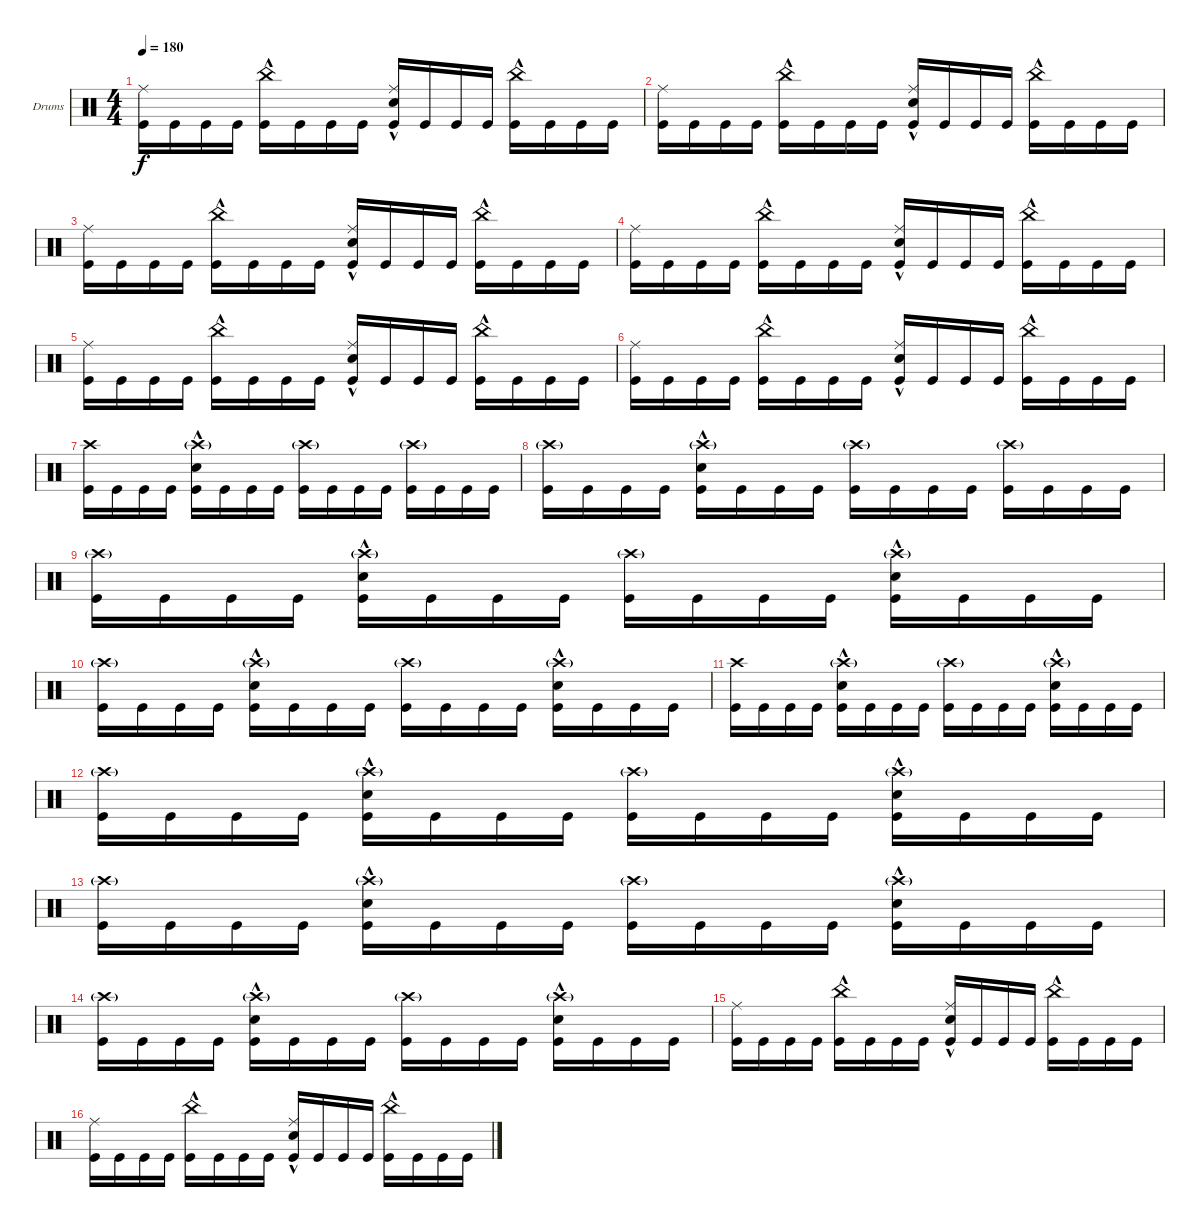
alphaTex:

\bracketExtendMode groupsimilarinstruments
\firstSystemTrackNameOrientation horizontal
\otherSystemsTrackNameOrientation horizontal
\track ("Drumkit" "Drums") {instrument percussion}
\staff {score}
\articulation defaults
\ts (4 4)
\tempo 180
\clef neutral
\scale
0.333333
\ks c
("Kick (hit)" "Ride (middle)").16{dy f} "Kick (hit)".16 "Kick (hit)".16 "Kick (hit)".16 ("Kick (hit)" "China (hit)"{hac}).16 "Kick (hit)".16 "Kick (hit)".16 "Kick (hit)".16 ("Kick (hit)" "Snare (hit) 2"{hac} "Ride (middle)").16 "Kick (hit)".16 "Kick (hit)".16 "Kick (hit)".16 ("Kick (hit)" "China (hit)"{hac}).16 "Kick (hit)".16 "Kick (hit)".16 "Kick (hit)".16 |
\scale
0.333333 ("Kick (hit)" "Ride (middle)").16 "Kick (hit)".16 "Kick (hit)".16 "Kick (hit)".16 ("Kick (hit)" "China (hit)"{hac}).16 "Kick (hit)".16 "Kick (hit)".16 "Kick (hit)".16 ("Kick (hit)" "Snare (hit) 2"{hac} "Ride (middle)").16 "Kick (hit)".16 "Kick (hit)".16 "Kick (hit)".16 ("Kick (hit)" "China (hit)"{hac}).16 "Kick (hit)".16 "Kick (hit)".16 "Kick (hit)".16 |
\scale
0.333333 ("Kick (hit)" "Ride (middle)").16 "Kick (hit)".16 "Kick (hit)".16 "Kick (hit)".16 ("Kick (hit)" "China (hit)"{hac}).16 "Kick (hit)".16 "Kick (hit)".16 "Kick (hit)".16 ("Kick (hit)" "Snare (hit) 2"{hac} "Ride (middle)").16 "Kick (hit)".16 "Kick (hit)".16 "Kick (hit)".16 ("Kick (hit)" "China (hit)"{hac}).16 "Kick (hit)".16 "Kick (hit)".16 "Kick (hit)".16 |
\scale
0.333333 ("Kick (hit)" "Ride (middle)").16 "Kick (hit)".16 "Kick (hit)".16 "Kick (hit)".16 ("Kick (hit)" "China (hit)"{hac}).16 "Kick (hit)".16 "Kick (hit)".16 "Kick (hit)".16 ("Kick (hit)" "Snare (hit) 2"{hac} "Ride (middle)").16 "Kick (hit)".16 "Kick (hit)".16 "Kick (hit)".16 ("Kick (hit)" "China (hit)"{hac}).16 "Kick (hit)".16 "Kick (hit)".16 "Kick (hit)".16 |
\scale
0.333333 ("Kick (hit)" "Ride (middle)").16 "Kick (hit)".16 "Kick (hit)".16 "Kick (hit)".16 ("Kick (hit)" "China (hit)"{hac}).16 "Kick (hit)".16 "Kick (hit)".16 "Kick (hit)".16 ("Kick (hit)" "Snare (hit) 2"{hac} "Ride (middle)").16 "Kick (hit)".16 "Kick (hit)".16 "Kick (hit)".16 ("Kick (hit)" "China (hit)"{hac}).16 "Kick (hit)".16 "Kick (hit)".16 "Kick (hit)".16 |
\scale
0.333333 ("Kick (hit)" "Ride (middle)").16 "Kick (hit)".16 "Kick (hit)".16 "Kick (hit)".16 ("Kick (hit)" "China (hit)"{hac}).16 "Kick (hit)".16 "Kick (hit)".16 "Kick (hit)".16 ("Kick (hit)" "Snare (hit) 2"{hac} "Ride (middle)").16 "Kick (hit)".16 "Kick (hit)".16 "Kick (hit)".16 ("Kick (hit)" "China (hit)"{hac}).16 "Kick (hit)".16 "Kick (hit)".16 "Kick (hit)".16 |
\scale
0.333333 ("Kick (hit)" "Crash high (hit)").16 "Kick (hit)".16 "Kick (hit)".16 "Kick (hit)".16 ("Kick (hit)" "Snare (hit) 2"{hac} "Crash high (hit)"{g}).16 "Kick (hit)".16 "Kick (hit)".16 "Kick (hit)".16 ("Kick (hit)" "Crash high (hit)"{g}).16 "Kick (hit)".16 "Kick (hit)".16 "Kick (hit)".16 ("Kick (hit)" "Crash high (hit)"{g}).16 "Kick (hit)".16 "Kick (hit)".16 "Kick (hit)".16 |
\scale
0.333333 ("Kick (hit)" "Crash high (hit)"{g}).16 "Kick (hit)".16 "Kick (hit)".16 "Kick (hit)".16 ("Kick (hit)" "Snare (hit) 2"{hac} "Crash high (hit)"{g}).16 "Kick (hit)".16 "Kick (hit)".16 "Kick (hit)".16 ("Kick (hit)" "Crash high (hit)"{g}).16 "Kick (hit)".16 "Kick (hit)".16 "Kick (hit)".16 ("Kick (hit)" "Crash high (hit)"{g}).16 "Kick (hit)".16 "Kick (hit)".16 "Kick (hit)".16 |
\scale
0.333333 ("Kick (hit)" "Crash high (hit)"{g}).16 "Kick (hit)".16 "Kick (hit)".16 "Kick (hit)".16 ("Kick (hit)" "Snare (hit) 2"{hac} "Crash high (hit)"{g}).16 "Kick (hit)".16 "Kick (hit)".16 "Kick (hit)".16 ("Kick (hit)" "Crash high (hit)"{g}).16 "Kick (hit)".16 "Kick (hit)".16 "Kick (hit)".16 ("Kick (hit)" "Snare (hit) 2"{hac} "Crash high (hit)"{g}).16 "Kick (hit)".16 "Kick (hit)".16 "Kick (hit)".16 |
\scale
0.333333 ("Kick (hit)" "Crash high (hit)"{g}).16 "Kick (hit)".16 "Kick (hit)".16 "Kick (hit)".16 ("Kick (hit)" "Snare (hit) 2"{hac} "Crash high (hit)"{g}).16 "Kick (hit)".16 "Kick (hit)".16 "Kick (hit)".16 ("Kick (hit)" "Crash high (hit)"{g}).16 "Kick (hit)".16 "Kick (hit)".16 "Kick (hit)".16 ("Kick (hit)" "Snare (hit) 2"{hac} "Crash high (hit)"{g}).16 "Kick (hit)".16 "Kick (hit)".16 "Kick (hit)".16 |
\scale
0.333333 ("Kick (hit)" "Crash high (hit)").16 "Kick (hit)".16 "Kick (hit)".16 "Kick (hit)".16 ("Kick (hit)" "Snare (hit) 2"{hac} "Crash high (hit)"{g}).16 "Kick (hit)".16 "Kick (hit)".16 "Kick (hit)".16 ("Kick (hit)" "Crash high (hit)"{g}).16 "Kick (hit)".16 "Kick (hit)".16 "Kick (hit)".16 ("Kick (hit)" "Snare (hit) 2"{hac} "Crash high (hit)"{g}).16 "Kick (hit)".16 "Kick (hit)".16 "Kick (hit)".16 |
\scale
0.333333 ("Kick (hit)" "Crash high (hit)"{g}).16 "Kick (hit)".16 "Kick (hit)".16 "Kick (hit)".16 ("Kick (hit)" "Snare (hit) 2"{hac} "Crash high (hit)"{g}).16 "Kick (hit)".16 "Kick (hit)".16 "Kick (hit)".16 ("Kick (hit)" "Crash high (hit)"{g}).16 "Kick (hit)".16 "Kick (hit)".16 "Kick (hit)".16 ("Kick (hit)" "Snare (hit) 2"{hac} "Crash high (hit)"{g}).16 "Kick (hit)".16 "Kick (hit)".16 "Kick (hit)".16 |
\scale
0.333333 ("Kick (hit)" "Crash high (hit)"{g}).16 "Kick (hit)".16 "Kick (hit)".16 "Kick (hit)".16 ("Kick (hit)" "Snare (hit) 2"{hac} "Crash high (hit)"{g}).16 "Kick (hit)".16 "Kick (hit)".16 "Kick (hit)".16 ("Kick (hit)" "Crash high (hit)"{g}).16 "Kick (hit)".16 "Kick (hit)".16 "Kick (hit)".16 ("Kick (hit)" "Snare (hit) 2"{hac} "Crash high (hit)"{g}).16 "Kick (hit)".16 "Kick (hit)".16 "Kick (hit)".16 |
\scale
0.333333 ("Kick (hit)" "Crash high (hit)"{g}).16 "Kick (hit)".16 "Kick (hit)".16 "Kick (hit)".16 ("Kick (hit)" "Snare (hit) 2"{hac} "Crash high (hit)"{g}).16 "Kick (hit)".16 "Kick (hit)".16 "Kick (hit)".16 ("Kick (hit)" "Crash high (hit)"{g}).16 "Kick (hit)".16 "Kick (hit)".16 "Kick (hit)".16 ("Kick (hit)" "Snare (hit) 2"{hac} "Crash high (hit)"{g}).16 "Kick (hit)".16 "Kick (hit)".16 "Kick (hit)".16 |
\scale
0.333333 ("Kick (hit)" "Ride (middle)").16 "Kick (hit)".16 "Kick (hit)".16 "Kick (hit)".16 ("Kick (hit)" "China (hit)"{hac}).16 "Kick (hit)".16 "Kick (hit)".16 "Kick (hit)".16 ("Kick (hit)" "Snare (hit) 2"{hac} "Ride (middle)").16 "Kick (hit)".16 "Kick (hit)".16 "Kick (hit)".16 ("Kick (hit)" "China (hit)"{hac}).16 "Kick (hit)".16 "Kick (hit)".16 "Kick (hit)".16 |
\scale
0.333333 ("Kick (hit)" "Ride (middle)").16 "Kick (hit)".16 "Kick (hit)".16 "Kick (hit)".16 ("Kick (hit)" "China (hit)"{hac}).16 "Kick (hit)".16 "Kick (hit)".16 "Kick (hit)".16 ("Kick (hit)" "Snare (hit) 2"{hac} "Ride (middle)").16 "Kick (hit)".16 "Kick (hit)".16 "Kick (hit)".16 ("Kick (hit)" "China (hit)"{hac}).16 "Kick (hit)".16 "Kick (hit)".16 "Kick (hit)".16
